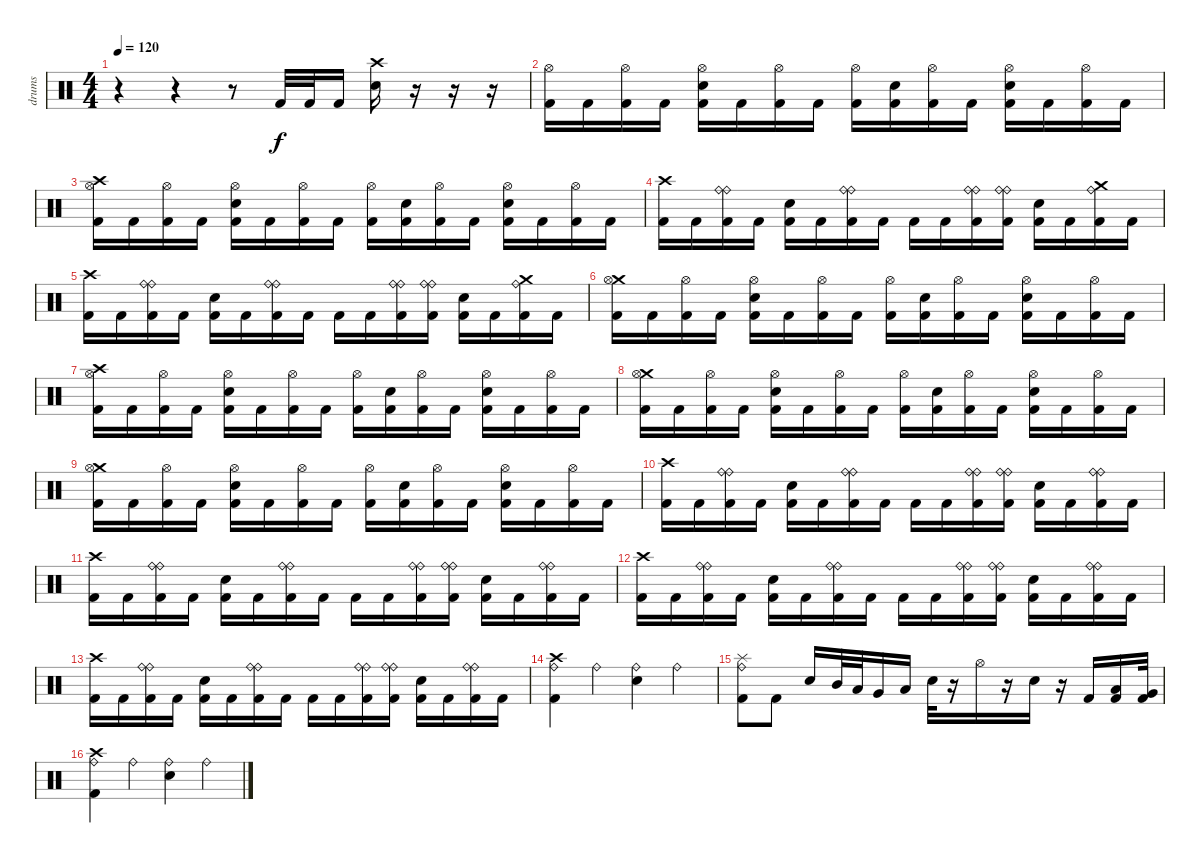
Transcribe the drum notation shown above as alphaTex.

\track ("drums" "drums") {instrument percussion}
\staff {score}
\articulation defaults
\ts (4 4)
\tempo 120
\clef neutral
\ks c
r.4{dy f} r.4 r.8 "Kick (hit) 2".32 "Kick (hit) 2".32 "Kick (hit) 2".16 ("Crash high (hit)" "Electric Snare (hit)").16 r.16 r.16 r.16 |
("Hi-Hat (open)" "Kick (hit) 2").16 "Kick (hit) 2".16 ("Hi-Hat (open)" "Kick (hit) 2").16 "Kick (hit) 2".16 ("Hi-Hat (open)" "Kick (hit) 2" "Electric Snare (hit)").16 "Kick (hit) 2".16 ("Hi-Hat (open)" "Kick (hit) 2").16 "Kick (hit) 2".16 ("Hi-Hat (open)" "Kick (hit) 2").16 ("Kick (hit) 2" "Electric Snare (hit)").16 ("Hi-Hat (open)" "Kick (hit) 2").16 "Kick (hit) 2".16 ("Hi-Hat (open)" "Kick (hit) 2" "Electric Snare (hit)").16 "Kick (hit) 2".16 ("Hi-Hat (open)" "Kick (hit) 2").16 "Kick (hit) 2".16 |
("Crash high (hit)" "Hi-Hat (open)" "Kick (hit) 2").16 "Kick (hit) 2".16 ("Hi-Hat (open)" "Kick (hit) 2").16 "Kick (hit) 2".16 ("Hi-Hat (open)" "Kick (hit) 2" "Electric Snare (hit)").16 "Kick (hit) 2".16 ("Hi-Hat (open)" "Kick (hit) 2").16 "Kick (hit) 2".16 ("Hi-Hat (open)" "Kick (hit) 2").16 ("Kick (hit) 2" "Electric Snare (hit)").16 ("Hi-Hat (open)" "Kick (hit) 2").16 "Kick (hit) 2".16 ("Hi-Hat (open)" "Kick (hit) 2" "Electric Snare (hit)").16 "Kick (hit) 2".16 ("Hi-Hat (open)" "Kick (hit) 2").16 "Kick (hit) 2".16 |
("Crash high (hit)" "Kick (hit) 2").16 "Kick (hit) 2".16 ("Ride (bell)" "Ride (bell)" "Kick (hit) 2").16 "Kick (hit) 2".16 ("Kick (hit) 2" "Electric Snare (hit)").16 "Kick (hit) 2".16 ("Ride (bell)" "Ride (bell)" "Kick (hit) 2").16 "Kick (hit) 2".16 "Kick (hit) 2".16 "Kick (hit) 2".16 ("Ride (bell)" "Ride (bell)" "Kick (hit) 2").16 ("Ride (bell)" "Ride (bell)" "Kick (hit) 2").16 ("Kick (hit) 2" "Electric Snare (hit)").16 "Kick (hit) 2".16 ("Crash medium (hit)" "Ride (bell)" "Kick (hit) 2").16 "Kick (hit) 2".16 |
("Crash high (hit)" "Kick (hit) 2").16 "Kick (hit) 2".16 ("Ride (bell)" "Ride (bell)" "Kick (hit) 2").16 "Kick (hit) 2".16 ("Kick (hit) 2" "Electric Snare (hit)").16 "Kick (hit) 2".16 ("Ride (bell)" "Ride (bell)" "Kick (hit) 2").16 "Kick (hit) 2".16 "Kick (hit) 2".16 "Kick (hit) 2".16 ("Ride (bell)" "Ride (bell)" "Kick (hit) 2").16 ("Ride (bell)" "Ride (bell)" "Kick (hit) 2").16 ("Kick (hit) 2" "Electric Snare (hit)").16 "Kick (hit) 2".16 ("Crash medium (hit)" "Ride (bell)" "Kick (hit) 2").16 "Kick (hit) 2".16 |
("Crash medium (hit)" "Hi-Hat (open)" "Kick (hit) 2").16 "Kick (hit) 2".16 ("Hi-Hat (open)" "Kick (hit) 2").16 "Kick (hit) 2".16 ("Hi-Hat (open)" "Kick (hit) 2" "Electric Snare (hit)").16 "Kick (hit) 2".16 ("Hi-Hat (open)" "Kick (hit) 2").16 "Kick (hit) 2".16 ("Hi-Hat (open)" "Kick (hit) 2").16 ("Kick (hit) 2" "Electric Snare (hit)").16 ("Hi-Hat (open)" "Kick (hit) 2").16 "Kick (hit) 2".16 ("Hi-Hat (open)" "Kick (hit) 2" "Electric Snare (hit)").16 "Kick (hit) 2".16 ("Hi-Hat (open)" "Kick (hit) 2").16 "Kick (hit) 2".16 |
("Crash high (hit)" "Hi-Hat (open)" "Kick (hit) 2").16 "Kick (hit) 2".16 ("Hi-Hat (open)" "Kick (hit) 2").16 "Kick (hit) 2".16 ("Hi-Hat (open)" "Kick (hit) 2" "Electric Snare (hit)").16 "Kick (hit) 2".16 ("Hi-Hat (open)" "Kick (hit) 2").16 "Kick (hit) 2".16 ("Hi-Hat (open)" "Kick (hit) 2").16 ("Kick (hit) 2" "Electric Snare (hit)").16 ("Hi-Hat (open)" "Kick (hit) 2").16 "Kick (hit) 2".16 ("Hi-Hat (open)" "Kick (hit) 2" "Electric Snare (hit)").16 "Kick (hit) 2".16 ("Hi-Hat (open)" "Kick (hit) 2").16 "Kick (hit) 2".16 |
("Crash medium (hit)" "Hi-Hat (open)" "Kick (hit) 2").16 "Kick (hit) 2".16 ("Hi-Hat (open)" "Kick (hit) 2").16 "Kick (hit) 2".16 ("Hi-Hat (open)" "Kick (hit) 2" "Electric Snare (hit)").16 "Kick (hit) 2".16 ("Hi-Hat (open)" "Kick (hit) 2").16 "Kick (hit) 2".16 ("Hi-Hat (open)" "Kick (hit) 2").16 ("Kick (hit) 2" "Electric Snare (hit)").16 ("Hi-Hat (open)" "Kick (hit) 2").16 "Kick (hit) 2".16 ("Hi-Hat (open)" "Kick (hit) 2" "Electric Snare (hit)").16 "Kick (hit) 2".16 ("Hi-Hat (open)" "Kick (hit) 2").16 "Kick (hit) 2".16 |
("Crash medium (hit)" "Hi-Hat (open)" "Kick (hit) 2").16 "Kick (hit) 2".16 ("Hi-Hat (open)" "Kick (hit) 2").16 "Kick (hit) 2".16 ("Hi-Hat (open)" "Kick (hit) 2" "Electric Snare (hit)").16 "Kick (hit) 2".16 ("Hi-Hat (open)" "Kick (hit) 2").16 "Kick (hit) 2".16 ("Hi-Hat (open)" "Kick (hit) 2").16 ("Kick (hit) 2" "Electric Snare (hit)").16 ("Hi-Hat (open)" "Kick (hit) 2").16 "Kick (hit) 2".16 ("Hi-Hat (open)" "Kick (hit) 2" "Electric Snare (hit)").16 "Kick (hit) 2".16 ("Hi-Hat (open)" "Kick (hit) 2").16 "Kick (hit) 2".16 |
("Crash high (hit)" "Kick (hit) 2").16 "Kick (hit) 2".16 ("Ride (bell)" "Ride (bell)" "Kick (hit) 2").16 "Kick (hit) 2".16 ("Kick (hit) 2" "Electric Snare (hit)").16 "Kick (hit) 2".16 ("Ride (bell)" "Ride (bell)" "Kick (hit) 2").16 "Kick (hit) 2".16 "Kick (hit) 2".16 "Kick (hit) 2".16 ("Ride (bell)" "Ride (bell)" "Kick (hit) 2").16 ("Ride (bell)" "Ride (bell)" "Kick (hit) 2").16 ("Kick (hit) 2" "Electric Snare (hit)").16 "Kick (hit) 2".16 ("Ride (bell)" "Ride (bell)" "Kick (hit) 2").16 "Kick (hit) 2".16 |
("Crash high (hit)" "Kick (hit) 2").16 "Kick (hit) 2".16 ("Ride (bell)" "Ride (bell)" "Kick (hit) 2").16 "Kick (hit) 2".16 ("Kick (hit) 2" "Electric Snare (hit)").16 "Kick (hit) 2".16 ("Ride (bell)" "Ride (bell)" "Kick (hit) 2").16 "Kick (hit) 2".16 "Kick (hit) 2".16 "Kick (hit) 2".16 ("Ride (bell)" "Ride (bell)" "Kick (hit) 2").16 ("Ride (bell)" "Ride (bell)" "Kick (hit) 2").16 ("Kick (hit) 2" "Electric Snare (hit)").16 "Kick (hit) 2".16 ("Ride (bell)" "Ride (bell)" "Kick (hit) 2").16 "Kick (hit) 2".16 |
("Crash high (hit)" "Kick (hit) 2").16 "Kick (hit) 2".16 ("Ride (bell)" "Ride (bell)" "Kick (hit) 2").16 "Kick (hit) 2".16 ("Kick (hit) 2" "Electric Snare (hit)").16 "Kick (hit) 2".16 ("Ride (bell)" "Ride (bell)" "Kick (hit) 2").16 "Kick (hit) 2".16 "Kick (hit) 2".16 "Kick (hit) 2".16 ("Ride (bell)" "Ride (bell)" "Kick (hit) 2").16 ("Ride (bell)" "Ride (bell)" "Kick (hit) 2").16 ("Kick (hit) 2" "Electric Snare (hit)").16 "Kick (hit) 2".16 ("Ride (bell)" "Ride (bell)" "Kick (hit) 2").16 "Kick (hit) 2".16 |
("Crash high (hit)" "Kick (hit) 2").16 "Kick (hit) 2".16 ("Ride (bell)" "Ride (bell)" "Kick (hit) 2").16 "Kick (hit) 2".16 ("Kick (hit) 2" "Electric Snare (hit)").16 "Kick (hit) 2".16 ("Ride (bell)" "Ride (bell)" "Kick (hit) 2").16 "Kick (hit) 2".16 "Kick (hit) 2".16 "Kick (hit) 2".16 ("Ride (bell)" "Ride (bell)" "Kick (hit) 2").16 ("Ride (bell)" "Ride (bell)" "Kick (hit) 2").16 ("Kick (hit) 2" "Electric Snare (hit)").16 "Kick (hit) 2".16 ("Ride (bell)" "Ride (bell)" "Kick (hit) 2").16 "Kick (hit) 2".16 |
("Crash high (hit)" "Ride (bell)" "Kick (hit) 2").4 "Ride (bell)".4 ("Ride (bell)" "Electric Snare (hit)").4 "Ride (bell)".4 |
("Splash (hit)" "Ride (bell)" "Kick (hit) 2").8 "Kick (hit) 2".8 "Electric Snare (hit)".16 "Mid Tom (hit)".32 "Low Tom (hit)".32 "Very Low Tom (hit)".16 "Low Floor Tom (hit)".16 "Electric Snare (hit)".32 r.16 "Hi-Hat (open)".16 r.16 "Electric Snare (hit)".16 r.16 "Kick (hit) 2".16 ("Low Tom (hit)" "Kick (hit) 2").16 ("Very Low Tom (hit)" "Kick (hit) 2").32 |
("Crash high (hit)" "Ride (bell)" "Kick (hit) 2").4 "Ride (bell)".4 ("Ride (bell)" "Electric Snare (hit)").4 "Ride (bell)".4
